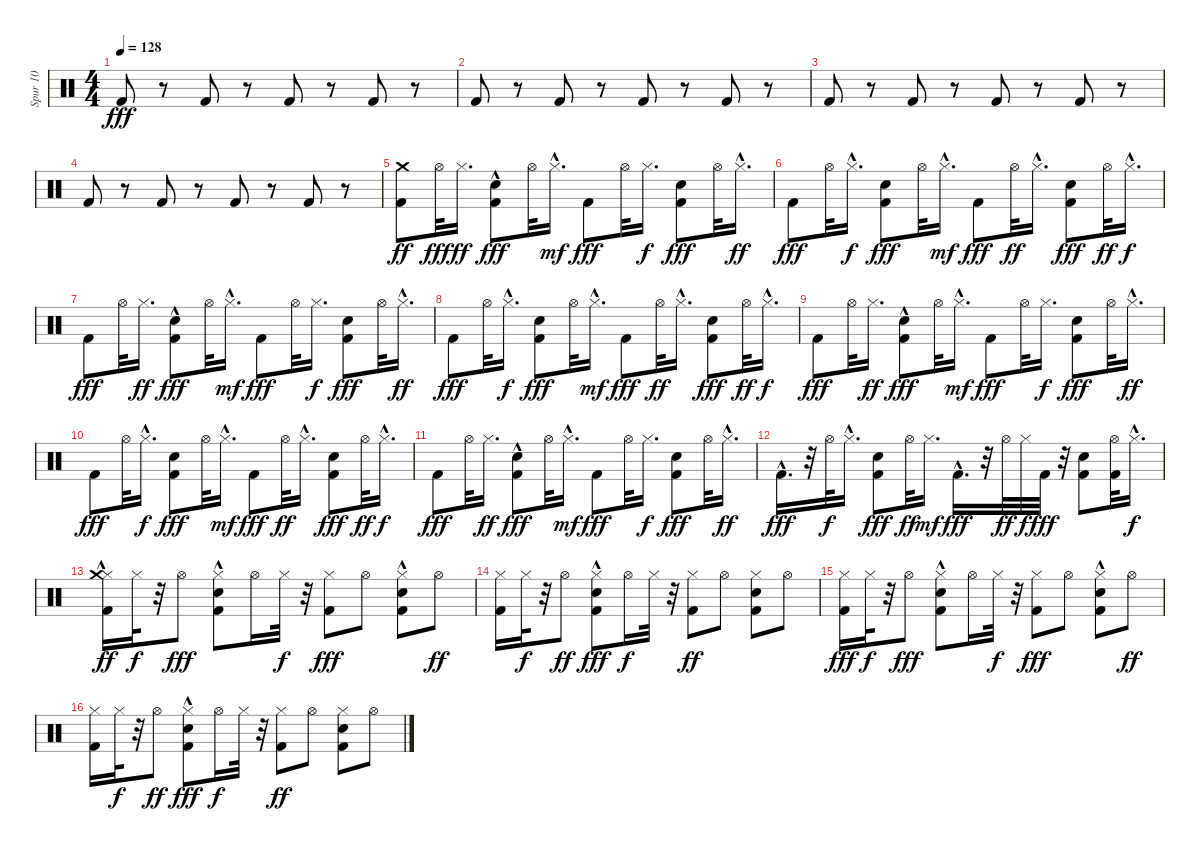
\track ("Spur 10" "Spur 10") {instrument percussion}
\staff {score}
\articulation defaults
\ts (4 4)
\tempo 128
\clef neutral
\ks c "Kick (hit) 2".8{dy fff}
r.8 "Kick (hit) 2".8 r.8 "Kick (hit) 2".8 r.8 "Kick (hit) 2".8 r.8 |
"Kick (hit) 2".8 r.8 "Kick (hit) 2".8 r.8 "Kick (hit) 2".8 r.8 "Kick (hit) 2".8 r.8 |
"Kick (hit) 2".8 r.8 "Kick (hit) 2".8 r.8 "Kick (hit) 2".8 r.8 "Kick (hit) 2".8 r.8 |
"Kick (hit) 2".8 r.8 "Kick (hit) 2".8 r.8 "Kick (hit) 2".8 r.8 "Kick (hit) 2".8 r.8 |
("Kick (hit) 2" "Crash medium (hit)").8{dy ff} "Hi-Hat (open)".32{dy fff} "Hi-Hat (closed)".16{d dy ff} ("Hand Clap (hit)"{hac} "Kick (hit) 2").8{dy fff} "Hi-Hat (open)".32 "Hi-Hat (closed)"{hac}.16{d dy mf} "Kick (hit) 2".8{dy fff} "Hi-Hat (open)".32 "Hi-Hat (closed)".16{d dy f} ("Hand Clap (hit)" "Kick (hit) 2").8{dy fff} "Hi-Hat (open)".32 "Hi-Hat (closed)"{hac}.16{d dy ff} |
"Kick (hit) 2".8{dy fff} "Hi-Hat (open)".32 "Hi-Hat (closed)"{hac}.16{d dy f} ("Hand Clap (hit)" "Kick (hit) 2").8{dy fff} "Hi-Hat (open)".32 "Hi-Hat (closed)"{hac}.16{d dy mf} "Kick (hit) 2".8{dy fff} "Hi-Hat (open)".32{dy ff} "Hi-Hat (closed)"{hac}.16{d} ("Hand Clap (hit)" "Kick (hit) 2").8{dy fff} "Hi-Hat (open)".32{dy ff} "Hi-Hat (closed)"{hac}.16{d dy f} |
"Kick (hit) 2".8{dy fff} "Hi-Hat (open)".32 "Hi-Hat (closed)".16{d dy ff} ("Hand Clap (hit)"{hac} "Kick (hit) 2").8{dy fff} "Hi-Hat (open)".32 "Hi-Hat (closed)"{hac}.16{d dy mf} "Kick (hit) 2".8{dy fff} "Hi-Hat (open)".32 "Hi-Hat (closed)".16{d dy f} ("Hand Clap (hit)" "Kick (hit) 2").8{dy fff} "Hi-Hat (open)".32 "Hi-Hat (closed)"{hac}.16{d dy ff} |
"Kick (hit) 2".8{dy fff} "Hi-Hat (open)".32 "Hi-Hat (closed)"{hac}.16{d dy f} ("Hand Clap (hit)" "Kick (hit) 2").8{dy fff} "Hi-Hat (open)".32 "Hi-Hat (closed)"{hac}.16{d dy mf} "Kick (hit) 2".8{dy fff} "Hi-Hat (open)".32{dy ff} "Hi-Hat (closed)"{hac}.16{d} ("Hand Clap (hit)" "Kick (hit) 2").8{dy fff} "Hi-Hat (open)".32{dy ff} "Hi-Hat (closed)"{hac}.16{d dy f} |
"Kick (hit) 2".8{dy fff} "Hi-Hat (open)".32 "Hi-Hat (closed)".16{d dy ff} ("Hand Clap (hit)"{hac} "Kick (hit) 2").8{dy fff} "Hi-Hat (open)".32 "Hi-Hat (closed)"{hac}.16{d dy mf} "Kick (hit) 2".8{dy fff} "Hi-Hat (open)".32 "Hi-Hat (closed)".16{d dy f} ("Hand Clap (hit)" "Kick (hit) 2").8{dy fff} "Hi-Hat (open)".32 "Hi-Hat (closed)"{hac}.16{d dy ff} |
"Kick (hit) 2".8{dy fff} "Hi-Hat (open)".32 "Hi-Hat (closed)"{hac}.16{d dy f} ("Hand Clap (hit)" "Kick (hit) 2").8{dy fff} "Hi-Hat (open)".32 "Hi-Hat (closed)"{hac}.16{d dy mf} "Kick (hit) 2".8{dy fff} "Hi-Hat (open)".32{dy ff} "Hi-Hat (closed)"{hac}.16{d} ("Hand Clap (hit)" "Kick (hit) 2").8{dy fff} "Hi-Hat (open)".32{dy ff} "Hi-Hat (closed)"{hac}.16{d dy f} |
"Kick (hit) 2".8{dy fff} "Hi-Hat (open)".32 "Hi-Hat (closed)".16{d dy ff} ("Hand Clap (hit)"{hac} "Kick (hit) 2").8{dy fff} "Hi-Hat (open)".32 "Hi-Hat (closed)"{hac}.16{d dy mf} "Kick (hit) 2".8{dy fff} "Hi-Hat (open)".32 "Hi-Hat (closed)".16{d dy f} ("Hand Clap (hit)" "Kick (hit) 2").8{dy fff} "Hi-Hat (open)".32 "Hi-Hat (closed)"{hac}.16{d dy ff} |
"Kick (hit) 2"{hac}.16{d dy fff} r.32 "Hi-Hat (open)".32{dy f} "Hi-Hat (closed)"{hac}.16{d} ("Hand Clap (hit)" "Kick (hit) 2").8{dy fff} "Hi-Hat (open)".32{dy ff} "Hi-Hat (closed)".16{d dy mf} "Kick (hit) 2"{hac}.16{d dy fff} r.32 "Hi-Hat (open)".32{dy ff} "Hi-Hat (closed)".32{dy f} "Kick (hit) 2".32{dy fff} r.32 ("Kick (hit) 2" "Hand Clap (hit)").8 ("Hi-Hat (open)" "Kick (hit) 2").32 "Hi-Hat (closed)"{hac}.16{d dy f} |
("Kick (hit) 2" "Hi-Hat (closed)" "Crash medium (hit)"{hac}).16{dy ff} "Hi-Hat (closed)".32{dy f} r.32 "Hi-Hat (open)".8{dy fff} ("Kick (hit) 2"{hac} "Hi-Hat (closed)" "Hand Clap (hit)").8 "Hi-Hat (open)".16 "Hi-Hat (closed)".32{dy f} r.32 ("Hi-Hat (closed)" "Kick (hit) 2").8{dy fff} "Hi-Hat (open)".8 ("Hi-Hat (closed)" "Hand Clap (hit)" "Kick (hit) 2"{hac}).8 "Hi-Hat (open)".8{dy ff} |
("Kick (hit) 2" "Hi-Hat (closed)").16 "Hi-Hat (closed)".32{dy f} r.32 "Hi-Hat (open)".8{dy ff} ("Hand Clap (hit)" "Hi-Hat (closed)" "Kick (hit) 2"{hac}).8{dy fff} "Hi-Hat (open)".16{dy f} "Hi-Hat (closed)".32 r.32 ("Kick (hit) 2" "Hi-Hat (closed)").8{dy ff} "Hi-Hat (open)".8 ("Kick (hit) 2" "Hand Clap (hit)" "Hi-Hat (closed)").8 "Hi-Hat (open)".8 |
("Kick (hit) 2" "Hi-Hat (closed)").16{dy fff} "Hi-Hat (closed)".32{dy f} r.32 "Hi-Hat (open)".8{dy fff} ("Kick (hit) 2"{hac} "Hi-Hat (closed)" "Hand Clap (hit)").8 "Hi-Hat (open)".16 "Hi-Hat (closed)".32{dy f} r.32 ("Hi-Hat (closed)" "Kick (hit) 2").8{dy fff} "Hi-Hat (open)".8 ("Hi-Hat (closed)" "Hand Clap (hit)" "Kick (hit) 2"{hac}).8 "Hi-Hat (open)".8{dy ff} |
("Kick (hit) 2" "Hi-Hat (closed)").16 "Hi-Hat (closed)".32{dy f} r.32 "Hi-Hat (open)".8{dy ff} ("Hand Clap (hit)" "Hi-Hat (closed)" "Kick (hit) 2"{hac}).8{dy fff} "Hi-Hat (open)".16{dy f} "Hi-Hat (closed)".32 r.32 ("Kick (hit) 2" "Hi-Hat (closed)").8{dy ff} "Hi-Hat (open)".8 ("Kick (hit) 2" "Hand Clap (hit)" "Hi-Hat (closed)").8 "Hi-Hat (open)".8
